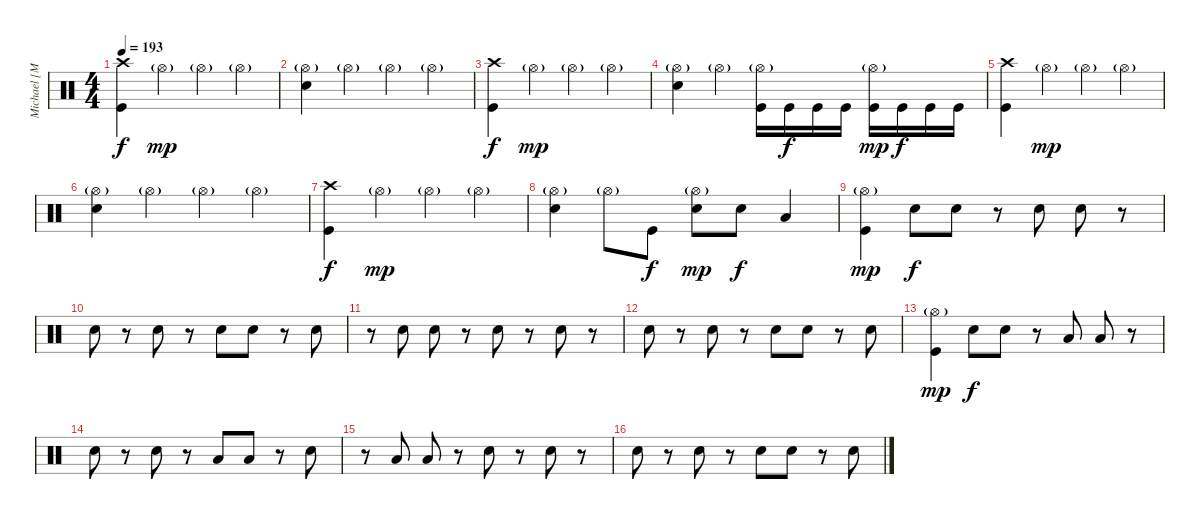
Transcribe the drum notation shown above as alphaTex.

\track ("Michael [Moose] Thomas" "Michael [M") {instrument percussion}
\staff {score}
\articulation defaults
\ts (4 4)
\tempo 193
\clef neutral
\ks c
("Crash high (hit)" "Kick (hit)").4{dy f} "Hi-Hat (open)"{g}.4{dy mp} "Hi-Hat (open)"{g}.4 "Hi-Hat (open)"{g}.4 |
("Hi-Hat (open)"{g} "Snare (hit) 2").4 "Hi-Hat (open)"{g}.4 "Hi-Hat (open)"{g}.4 "Hi-Hat (open)"{g}.4 |
("Crash high (hit)" "Kick (hit)").4{dy f} "Hi-Hat (open)"{g}.4{dy mp} "Hi-Hat (open)"{g}.4 "Hi-Hat (open)"{g}.4 |
("Hi-Hat (open)"{g} "Snare (hit) 2").4 "Hi-Hat (open)"{g}.4 ("Hi-Hat (open)"{g} "Kick (hit)").16 "Kick (hit)".16{dy f} "Kick (hit)".16 "Kick (hit)".16 ("Hi-Hat (open)"{g} "Kick (hit)").16{dy mp} "Kick (hit)".16{dy f} "Kick (hit)".16 "Kick (hit)".16 |
("Crash high (hit)" "Kick (hit)").4 "Hi-Hat (open)"{g}.4{dy mp} "Hi-Hat (open)"{g}.4 "Hi-Hat (open)"{g}.4 |
("Hi-Hat (open)"{g} "Snare (hit) 2").4 "Hi-Hat (open)"{g}.4 "Hi-Hat (open)"{g}.4 "Hi-Hat (open)"{g}.4 |
("Crash high (hit)" "Kick (hit)").4{dy f} "Hi-Hat (open)"{g}.4{dy mp} "Hi-Hat (open)"{g}.4 "Hi-Hat (open)"{g}.4 |
("Hi-Hat (open)"{g} "Snare (hit) 2").4 "Hi-Hat (open)"{g}.8 "Kick (hit)".8{dy f} ("Hi-Hat (open)"{g} "Snare (hit) 2").8{dy mp} "Snare (hit) 2".8{dy f} "Low Tom (hit)".4 |
("Hi-Hat (open)"{g} "Kick (hit)").4{dy mp} "Snare (hit) 2".8{dy f} "Snare (hit) 2".8 r.8 "Snare (hit) 2".8 "Snare (hit) 2".8 r.8 |
"Snare (hit) 2".8 r.8 "Snare (hit) 2".8 r.8 "Snare (hit) 2".8 "Snare (hit) 2".8 r.8 "Snare (hit) 2".8 |
r.8 "Snare (hit) 2".8 "Snare (hit) 2".8 r.8 "Snare (hit) 2".8 r.8 "Snare (hit) 2".8 r.8 |
"Snare (hit) 2".8 r.8 "Snare (hit) 2".8 r.8 "Snare (hit) 2".8 "Snare (hit) 2".8 r.8 "Snare (hit) 2".8 |
("Hi-Hat (open)"{g} "Kick (hit)").4{dy mp} "Snare (hit) 2".8{dy f} "Snare (hit) 2".8 r.8 "Low Tom (hit)".8 "Low Floor Tom (hit)".8 r.8 |
"Snare (hit) 2".8 r.8 "Snare (hit) 2".8 r.8 "Low Tom (hit)".8 "Low Floor Tom (hit)".8 r.8 "Snare (hit) 2".8 |
r.8 "Low Floor Tom (hit)".8 "Low Tom (hit)".8 r.8 "Snare (hit) 2".8 r.8 "Snare (hit) 2".8 r.8 |
"Snare (hit) 2".8 r.8 "Snare (hit) 2".8 r.8 "Snare (hit) 2".8 "Snare (hit) 2".8 r.8 "Snare (hit) 2".8
